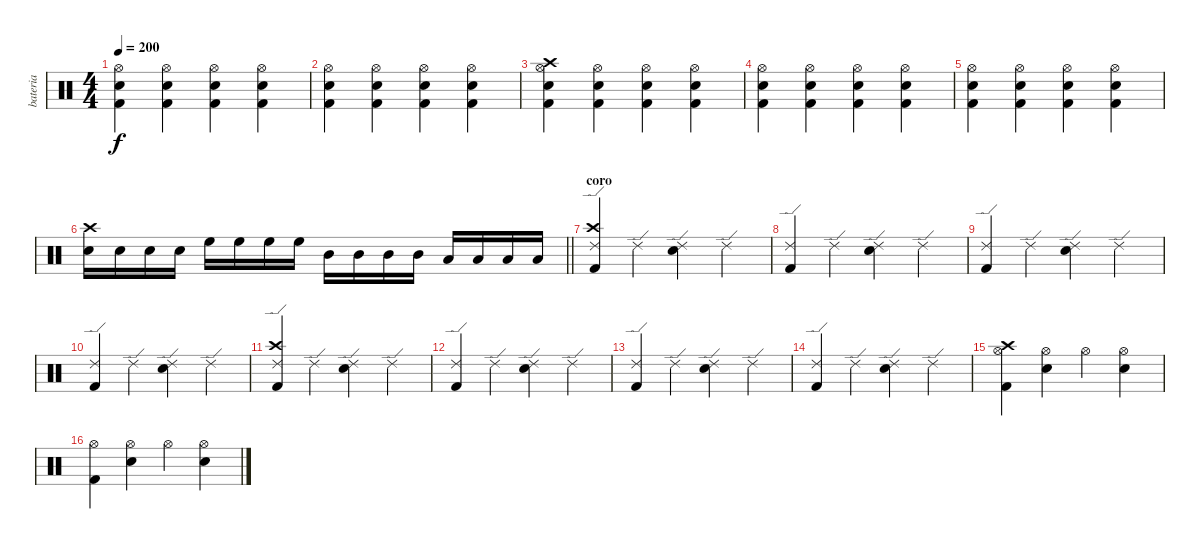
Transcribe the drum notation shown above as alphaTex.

\track ("bateria" "bateria") {instrument percussion}
\staff {score}
\articulation defaults
\ts (4 4)
\tempo 200
\clef neutral
\ks c
("Electric Snare (hit)" "Kick (hit) 2" "Hi-Hat (open)").4{dy f} ("Electric Snare (hit)" "Kick (hit) 2" "Hi-Hat (open)").4 ("Electric Snare (hit)" "Kick (hit) 2" "Hi-Hat (open)").4 ("Electric Snare (hit)" "Kick (hit) 2" "Hi-Hat (open)").4 |
("Electric Snare (hit)" "Kick (hit) 2" "Hi-Hat (open)").4 ("Electric Snare (hit)" "Kick (hit) 2" "Hi-Hat (open)").4 ("Electric Snare (hit)" "Kick (hit) 2" "Hi-Hat (open)").4 ("Electric Snare (hit)" "Kick (hit) 2" "Hi-Hat (open)").4 |
("Electric Snare (hit)" "Kick (hit) 2" "Hi-Hat (open)" "Crash high (hit)").4 ("Electric Snare (hit)" "Kick (hit) 2" "Hi-Hat (open)").4 ("Electric Snare (hit)" "Kick (hit) 2" "Hi-Hat (open)").4 ("Electric Snare (hit)" "Kick (hit) 2" "Hi-Hat (open)").4 |
("Electric Snare (hit)" "Kick (hit) 2" "Hi-Hat (open)").4 ("Electric Snare (hit)" "Kick (hit) 2" "Hi-Hat (open)").4 ("Electric Snare (hit)" "Kick (hit) 2" "Hi-Hat (open)").4 ("Electric Snare (hit)" "Kick (hit) 2" "Hi-Hat (open)").4 |
("Electric Snare (hit)" "Kick (hit) 2" "Hi-Hat (open)").4 ("Electric Snare (hit)" "Kick (hit) 2" "Hi-Hat (open)").4 ("Electric Snare (hit)" "Kick (hit) 2" "Hi-Hat (open)").4 ("Electric Snare (hit)" "Kick (hit) 2" "Hi-Hat (open)").4 |
\barLineRight lightlight
("Electric Snare (hit)" "Crash high (hit)").16 "Electric Snare (hit)".16 "Electric Snare (hit)".16 "Electric Snare (hit)".16 "High Floor Tom (hit)".16 "High Floor Tom (hit)".16 "High Floor Tom (hit)".16 "High Floor Tom (hit)".16 "Mid Tom (hit)".16 "Mid Tom (hit)".16 "Mid Tom (hit)".16 "Mid Tom (hit)".16 "Low Tom (hit)".16 "Low Tom (hit)".16 "Low Tom (hit)".16 "Low Tom (hit)".16 |
\section ("" "coro")
("Ride (edge) 2" "Kick (hit) 2" "Crash high (hit)").4 "Ride (edge) 2".4 ("Ride (edge) 2" "Electric Snare (hit)").4 "Ride (edge) 2".4 |
("Ride (edge) 2" "Kick (hit) 2").4 "Ride (edge) 2".4 ("Ride (edge) 2" "Electric Snare (hit)").4 "Ride (edge) 2".4 |
("Ride (edge) 2" "Kick (hit) 2").4 "Ride (edge) 2".4 ("Ride (edge) 2" "Electric Snare (hit)").4 "Ride (edge) 2".4 |
("Ride (edge) 2" "Kick (hit) 2").4 "Ride (edge) 2".4 ("Ride (edge) 2" "Electric Snare (hit)").4 "Ride (edge) 2".4 |
("Ride (edge) 2" "Kick (hit) 2" "Crash high (hit)").4 "Ride (edge) 2".4 ("Ride (edge) 2" "Electric Snare (hit)").4 "Ride (edge) 2".4 |
("Ride (edge) 2" "Kick (hit) 2").4 "Ride (edge) 2".4 ("Ride (edge) 2" "Electric Snare (hit)").4 "Ride (edge) 2".4 |
("Ride (edge) 2" "Kick (hit) 2").4 "Ride (edge) 2".4 ("Ride (edge) 2" "Electric Snare (hit)").4 "Ride (edge) 2".4 |
("Ride (edge) 2" "Kick (hit) 2").4 "Ride (edge) 2".4 ("Ride (edge) 2" "Electric Snare (hit)").4 "Ride (edge) 2".4 |
("Hi-Hat (open)" "Kick (hit) 2" "Crash high (hit)").4 ("Hi-Hat (open)" "Electric Snare (hit)").4 "Hi-Hat (open)".4 ("Hi-Hat (open)" "Electric Snare (hit)").4 |
("Hi-Hat (open)" "Kick (hit) 2").4 ("Hi-Hat (open)" "Electric Snare (hit)").4 "Hi-Hat (open)".4 ("Hi-Hat (open)" "Electric Snare (hit)").4
